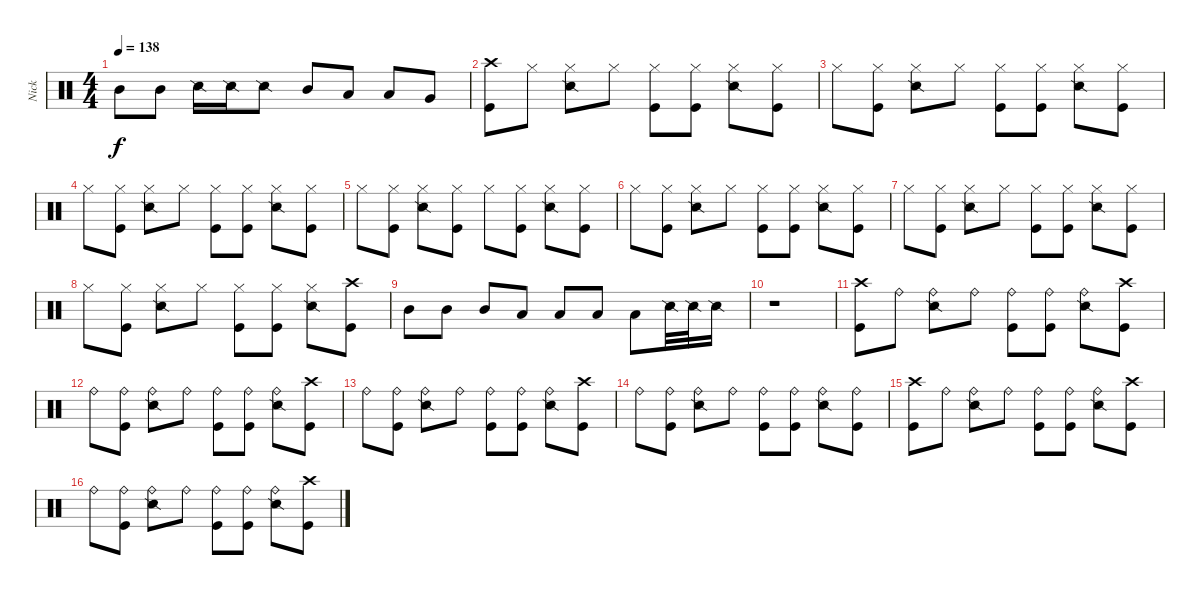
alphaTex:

\track ("Nick" "Nick") {instrument percussion}
\staff {score}
\articulation defaults
\ts (4 4)
\tempo 138
\clef neutral
\ks c "Mid Tom (hit)".8{dy f} "Mid Tom (hit)".8 "Snare (side stick) 2".16 "Snare (side stick) 2".16 "Snare (side stick) 2".8 "Mid Tom (hit)".8 "Low Tom (hit)".8 "Low Tom (hit)".8 "Very Low Tom (hit)".8
|
("Crash high (hit)" "Kick (hit)").8 "Hi-Hat (closed)".8 ("Hi-Hat (closed)" "Snare (side stick) 2").8 "Hi-Hat (closed)".8 ("Hi-Hat (closed)" "Kick (hit)").8 ("Hi-Hat (closed)" "Kick (hit)").8 ("Hi-Hat (closed)" "Snare (side stick) 2").8 ("Hi-Hat (closed)" "Kick (hit)").8 |
"Hi-Hat (closed)".8 ("Hi-Hat (closed)" "Kick (hit)").8 ("Hi-Hat (closed)" "Snare (side stick) 2").8 "Hi-Hat (closed)".8 ("Hi-Hat (closed)" "Kick (hit)").8 ("Hi-Hat (closed)" "Kick (hit)").8 ("Hi-Hat (closed)" "Snare (side stick) 2").8 ("Hi-Hat (closed)" "Kick (hit)").8 |
"Hi-Hat (closed)".8 ("Hi-Hat (closed)" "Kick (hit)").8 ("Hi-Hat (closed)" "Snare (side stick) 2").8 "Hi-Hat (closed)".8 ("Hi-Hat (closed)" "Kick (hit)").8 ("Hi-Hat (closed)" "Kick (hit)").8 ("Hi-Hat (closed)" "Snare (side stick) 2").8 ("Hi-Hat (closed)" "Kick (hit)").8 |
"Hi-Hat (closed)".8 ("Hi-Hat (closed)" "Kick (hit)").8 ("Hi-Hat (closed)" "Snare (side stick) 2").8 ("Hi-Hat (closed)" "Kick (hit)").8 "Hi-Hat (closed)".8 ("Hi-Hat (closed)" "Kick (hit)").8 ("Hi-Hat (closed)" "Snare (side stick) 2").8 ("Hi-Hat (closed)" "Kick (hit)").8 |
"Hi-Hat (closed)".8 ("Hi-Hat (closed)" "Kick (hit)").8 ("Hi-Hat (closed)" "Snare (side stick) 2").8 "Hi-Hat (closed)".8 ("Hi-Hat (closed)" "Kick (hit)").8 ("Hi-Hat (closed)" "Kick (hit)").8 ("Hi-Hat (closed)" "Snare (side stick) 2").8 ("Hi-Hat (closed)" "Kick (hit)").8 |
"Hi-Hat (closed)".8 ("Hi-Hat (closed)" "Kick (hit)").8 ("Hi-Hat (closed)" "Snare (side stick) 2").8 "Hi-Hat (closed)".8 ("Hi-Hat (closed)" "Kick (hit)").8 ("Hi-Hat (closed)" "Kick (hit)").8 ("Hi-Hat (closed)" "Snare (side stick) 2").8 ("Hi-Hat (closed)" "Kick (hit)").8 |
"Hi-Hat (closed)".8 ("Hi-Hat (closed)" "Kick (hit)").8 ("Hi-Hat (closed)" "Snare (side stick) 2").8 "Hi-Hat (closed)".8 ("Hi-Hat (closed)" "Kick (hit)").8 ("Hi-Hat (closed)" "Kick (hit)").8 ("Hi-Hat (closed)" "Snare (side stick) 2").8 ("Crash high (hit)" "Kick (hit)").8 |
"Mid Tom (hit)".8 "Mid Tom (hit)".8 "Mid Tom (hit)".8 "Low Tom (hit)".8 "Low Tom (hit)".8 "Low Tom (hit)".8 "Low Floor Tom (hit)".8 "Snare (side stick) 2".32 "Snare (side stick) 2".32 "Snare (side stick) 2".16 |
r.1 |
("Crash high (hit)" "Kick (hit)").8 "Ride (bell)".8 ("Ride (bell)" "Snare (side stick) 2").8 "Ride (bell)".8 ("Ride (bell)" "Kick (hit)").8 ("Ride (bell)" "Kick (hit)").8 ("Ride (bell)" "Snare (side stick) 2").8 ("Crash high (hit)" "Kick (hit)").8 |
"Ride (bell)".8 ("Ride (bell)" "Kick (hit)").8 ("Ride (bell)" "Snare (side stick) 2").8 "Ride (bell)".8 ("Ride (bell)" "Kick (hit)").8 ("Ride (bell)" "Kick (hit)").8 ("Ride (bell)" "Snare (side stick) 2").8 ("Crash high (hit)" "Kick (hit)").8 |
"Ride (bell)".8 ("Ride (bell)" "Kick (hit)").8 ("Ride (bell)" "Snare (side stick) 2").8 "Ride (bell)".8 ("Ride (bell)" "Kick (hit)").8 ("Ride (bell)" "Kick (hit)").8 ("Ride (bell)" "Snare (side stick) 2").8 ("Crash high (hit)" "Kick (hit)").8 |
"Ride (bell)".8 ("Ride (bell)" "Kick (hit)").8 ("Ride (bell)" "Snare (side stick) 2").8 "Ride (bell)".8 ("Ride (bell)" "Kick (hit)").8 ("Ride (bell)" "Kick (hit)").8 ("Ride (bell)" "Snare (side stick) 2").8 ("Ride (bell)" "Kick (hit)").8 |
("Crash high (hit)" "Kick (hit)").8 "Ride (bell)".8 ("Ride (bell)" "Snare (side stick) 2").8 "Ride (bell)".8 ("Ride (bell)" "Kick (hit)").8 ("Ride (bell)" "Kick (hit)").8 ("Ride (bell)" "Snare (side stick) 2").8 ("Crash high (hit)" "Kick (hit)").8 |
"Ride (bell)".8 ("Ride (bell)" "Kick (hit)").8 ("Ride (bell)" "Snare (side stick) 2").8 "Ride (bell)".8 ("Ride (bell)" "Kick (hit)").8 ("Ride (bell)" "Kick (hit)").8 ("Ride (bell)" "Snare (side stick) 2").8 ("Crash high (hit)" "Kick (hit)").8
